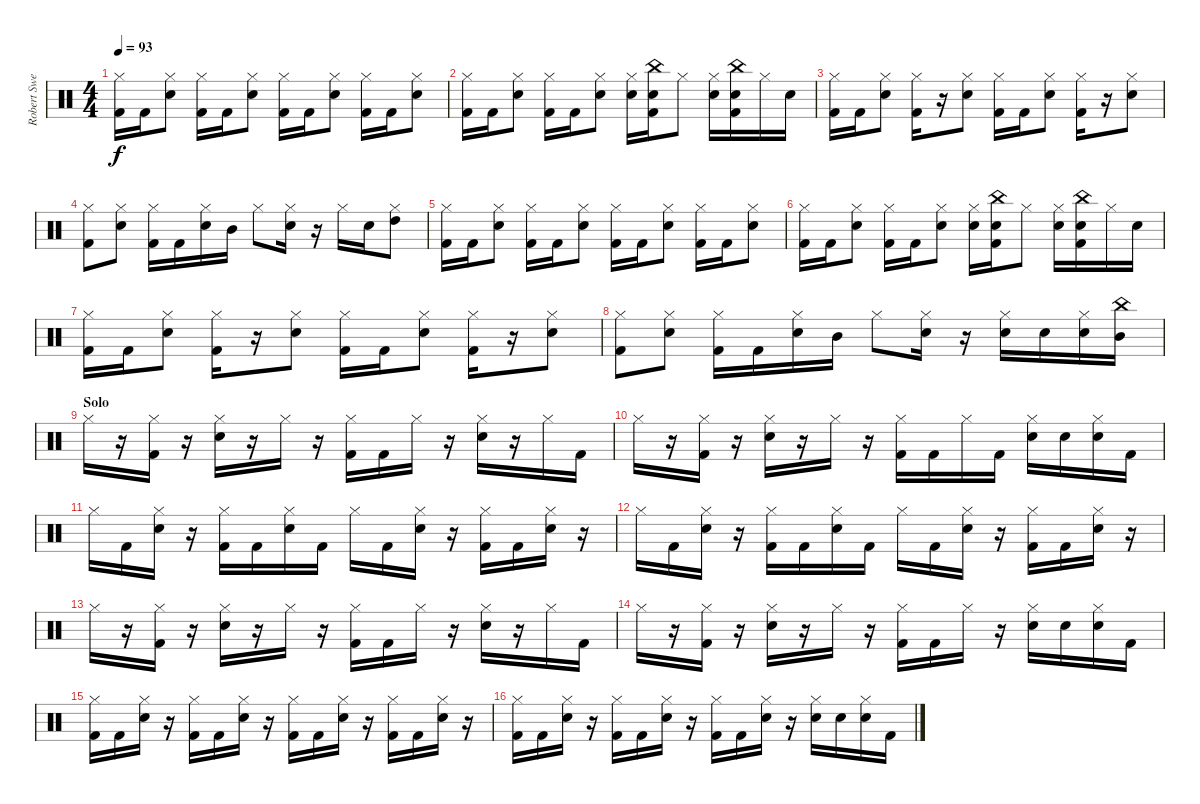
\track ("Robert Sweet" "Robert Swe") {instrument percussion}
\staff {score}
\articulation defaults
\ts (4 4)
\tempo 93
\clef neutral
\ks c
("Hi-Hat (closed)" "Kick (hit) 2").16{dy f} "Kick (hit) 2".16 ("Hi-Hat (closed)" "Snare (hit) 2").8 ("Hi-Hat (closed)" "Kick (hit) 2").16 "Kick (hit) 2".16 ("Hi-Hat (closed)" "Snare (hit) 2").8 ("Hi-Hat (closed)" "Kick (hit) 2").16 "Kick (hit) 2".16 ("Hi-Hat (closed)" "Snare (hit) 2").8 ("Hi-Hat (closed)" "Kick (hit) 2").16 "Kick (hit) 2".16 ("Hi-Hat (closed)" "Snare (hit) 2").8 |
("Hi-Hat (closed)" "Kick (hit) 2").16 "Kick (hit) 2".16 ("Hi-Hat (closed)" "Snare (hit) 2").8 ("Hi-Hat (closed)" "Kick (hit) 2").16 "Kick (hit) 2".16 ("Hi-Hat (closed)" "Snare (hit) 2").8 ("Hi-Hat (closed)" "Snare (hit) 2").16 ("Kick (hit) 2" "Snare (hit) 2" "China (hit)").16 "Hi-Hat (closed)".8 ("Hi-Hat (closed)" "Snare (hit) 2").16 ("Kick (hit) 2" "Snare (hit) 2" "China (hit)").16 "Hi-Hat (closed)".16 "Snare (hit) 2".16 |
("Hi-Hat (closed)" "Kick (hit) 2").16 "Kick (hit) 2".16 ("Hi-Hat (closed)" "Snare (hit) 2").8 ("Hi-Hat (closed)" "Kick (hit) 2").16 r.16 ("Hi-Hat (closed)" "Snare (hit) 2").8 ("Hi-Hat (closed)" "Kick (hit) 2").16 "Kick (hit) 2".16 ("Hi-Hat (closed)" "Snare (hit) 2").8 ("Hi-Hat (closed)" "Kick (hit) 2").16 r.16 ("Hi-Hat (closed)" "Snare (hit) 2").8 |
("Hi-Hat (closed)" "Kick (hit) 2").8 ("Hi-Hat (closed)" "Snare (hit) 2").8 ("Hi-Hat (closed)" "Kick (hit) 2").16 "Kick (hit) 2".16 ("Hi-Hat (closed)" "Snare (hit) 2").16 "Mid Tom (hit)".16 "Hi-Hat (closed)".8 ("Hi-Hat (closed)" "Snare (hit) 2").16 r.16 "Hi-Hat (closed)".16 "Snare (hit) 2".16 ("Hi-Hat (closed)" "High Tom (hit)").8 |
("Hi-Hat (closed)" "Kick (hit) 2").16 "Kick (hit) 2".16 ("Hi-Hat (closed)" "Snare (hit) 2").8 ("Hi-Hat (closed)" "Kick (hit) 2").16 "Kick (hit) 2".16 ("Hi-Hat (closed)" "Snare (hit) 2").8 ("Hi-Hat (closed)" "Kick (hit) 2").16 "Kick (hit) 2".16 ("Hi-Hat (closed)" "Snare (hit) 2").8 ("Hi-Hat (closed)" "Kick (hit) 2").16 "Kick (hit) 2".16 ("Hi-Hat (closed)" "Snare (hit) 2").8 |
("Hi-Hat (closed)" "Kick (hit) 2").16 "Kick (hit) 2".16 ("Hi-Hat (closed)" "Snare (hit) 2").8 ("Hi-Hat (closed)" "Kick (hit) 2").16 "Kick (hit) 2".16 ("Hi-Hat (closed)" "Snare (hit) 2").8 ("Hi-Hat (closed)" "Snare (hit) 2").16 ("Kick (hit) 2" "Snare (hit) 2" "China (hit)").16 "Hi-Hat (closed)".8 ("Hi-Hat (closed)" "Snare (hit) 2").16 ("Kick (hit) 2" "Snare (hit) 2" "China (hit)").16 "Hi-Hat (closed)".16 "Snare (hit) 2".16 |
("Hi-Hat (closed)" "Kick (hit) 2").16 "Kick (hit) 2".16 ("Hi-Hat (closed)" "Snare (hit) 2").8 ("Hi-Hat (closed)" "Kick (hit) 2").16 r.16 ("Hi-Hat (closed)" "Snare (hit) 2").8 ("Hi-Hat (closed)" "Kick (hit) 2").16 "Kick (hit) 2".16 ("Hi-Hat (closed)" "Snare (hit) 2").8 ("Hi-Hat (closed)" "Kick (hit) 2").16 r.16 ("Hi-Hat (closed)" "Snare (hit) 2").8 |
("Hi-Hat (closed)" "Kick (hit) 2").8 ("Hi-Hat (closed)" "Snare (hit) 2").8 ("Hi-Hat (closed)" "Kick (hit) 2").16 "Kick (hit) 2".16 ("Hi-Hat (closed)" "Snare (hit) 2").16 "Mid Tom (hit)".16 "Hi-Hat (closed)".8 ("Hi-Hat (closed)" "Snare (hit) 2").16 r.16 ("Hi-Hat (closed)" "Snare (hit) 2").16 "Snare (hit) 2".16 ("Hi-Hat (closed)" "Snare (hit) 2").16 ("Mid Tom (hit)" "China (hit)").16 |
\section ("" "Solo")
"Hi-Hat (closed)".16 r.16 ("Hi-Hat (closed)" "Kick (hit) 2").16 r.16 ("Hi-Hat (closed)" "Snare (hit) 2").16 r.16 "Hi-Hat (closed)".16 r.16 ("Hi-Hat (closed)" "Kick (hit) 2").16 "Kick (hit) 2".16 "Hi-Hat (closed)".16 r.16 ("Hi-Hat (closed)" "Snare (hit) 2").16 r.16 "Hi-Hat (closed)".16 "Kick (hit) 2".16 |
"Hi-Hat (closed)".16 r.16 ("Hi-Hat (closed)" "Kick (hit) 2").16 r.16 ("Hi-Hat (closed)" "Snare (hit) 2").16 r.16 "Hi-Hat (closed)".16 r.16 ("Hi-Hat (closed)" "Kick (hit) 2").16 "Kick (hit) 2".16 "Hi-Hat (closed)".16 "Kick (hit) 2".16 ("Hi-Hat (closed)" "Snare (hit) 2").16 "Snare (hit) 2".16 ("Hi-Hat (closed)" "Snare (hit) 2").16 "Kick (hit) 2".16 |
"Hi-Hat (closed)".16 "Kick (hit) 2".16 ("Hi-Hat (closed)" "Snare (hit) 2").16 r.16 ("Hi-Hat (closed)" "Kick (hit) 2").16 "Kick (hit) 2".16 ("Hi-Hat (closed)" "Snare (hit) 2").16 "Kick (hit) 2".16 "Hi-Hat (closed)".16 "Kick (hit) 2".16 ("Hi-Hat (closed)" "Snare (hit) 2").16 r.16 ("Hi-Hat (closed)" "Kick (hit) 2").16 "Kick (hit) 2".16 ("Hi-Hat (closed)" "Snare (hit) 2").16 r.16 |
"Hi-Hat (closed)".16 "Kick (hit) 2".16 ("Hi-Hat (closed)" "Snare (hit) 2").16 r.16 ("Hi-Hat (closed)" "Kick (hit) 2").16 "Kick (hit) 2".16 ("Hi-Hat (closed)" "Snare (hit) 2").16 "Kick (hit) 2".16 "Hi-Hat (closed)".16 "Kick (hit) 2".16 ("Hi-Hat (closed)" "Snare (hit) 2").16 r.16 ("Hi-Hat (closed)" "Kick (hit) 2").16 "Kick (hit) 2".16 ("Hi-Hat (closed)" "Snare (hit) 2").16 r.16 |
"Hi-Hat (closed)".16 r.16 ("Hi-Hat (closed)" "Kick (hit) 2").16 r.16 ("Hi-Hat (closed)" "Snare (hit) 2").16 r.16 "Hi-Hat (closed)".16 r.16 ("Hi-Hat (closed)" "Kick (hit) 2").16 "Kick (hit) 2".16 "Hi-Hat (closed)".16 r.16 ("Hi-Hat (closed)" "Snare (hit) 2").16 r.16 "Hi-Hat (closed)".16 "Kick (hit) 2".16 |
"Hi-Hat (closed)".16 r.16 ("Hi-Hat (closed)" "Kick (hit) 2").16 r.16 ("Hi-Hat (closed)" "Snare (hit) 2").16 r.16 "Hi-Hat (closed)".16 r.16 ("Hi-Hat (closed)" "Kick (hit) 2").16 "Kick (hit) 2".16 "Hi-Hat (closed)".16 r.16 ("Hi-Hat (closed)" "Snare (hit) 2").16 "Snare (hit) 2".16 ("Hi-Hat (closed)" "Snare (hit) 2").16 "Kick (hit) 2".16 |
("Hi-Hat (closed)" "Kick (hit) 2").16 "Kick (hit) 2".16 ("Hi-Hat (closed)" "Snare (hit) 2").16 r.16 ("Hi-Hat (closed)" "Kick (hit) 2").16 "Kick (hit) 2".16 ("Hi-Hat (closed)" "Snare (hit) 2").16 r.16 ("Hi-Hat (closed)" "Kick (hit) 2").16 "Kick (hit) 2".16 ("Hi-Hat (closed)" "Snare (hit) 2").16 r.16 ("Hi-Hat (closed)" "Kick (hit) 2").16 "Kick (hit) 2".16 ("Hi-Hat (closed)" "Snare (hit) 2").16 r.16 |
("Hi-Hat (closed)" "Kick (hit) 2").16 "Kick (hit) 2".16 ("Hi-Hat (closed)" "Snare (hit) 2").16 r.16 ("Hi-Hat (closed)" "Kick (hit) 2").16 "Kick (hit) 2".16 ("Hi-Hat (closed)" "Snare (hit) 2").16 r.16 ("Hi-Hat (closed)" "Kick (hit) 2").16 "Kick (hit) 2".16 ("Hi-Hat (closed)" "Snare (hit) 2").16 r.16 ("Hi-Hat (closed)" "Snare (hit) 2").16 "Snare (hit) 2".16 ("Hi-Hat (closed)" "Snare (hit) 2").16 "Kick (hit) 2".16
